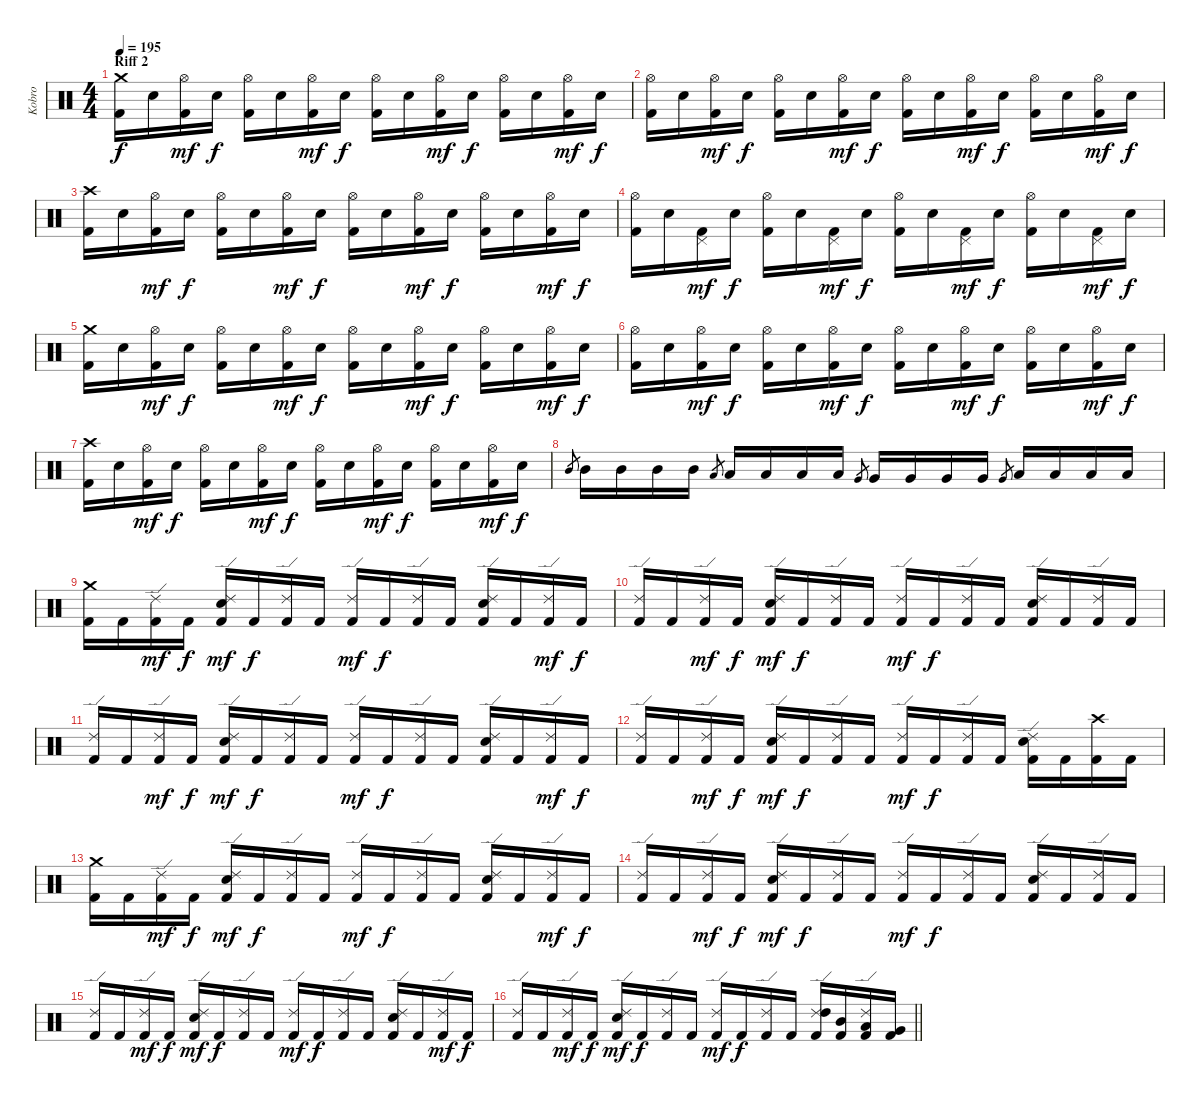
\track ("Kobro" "Kobro") {instrument percussion}
\staff {score}
\articulation defaults
\ts (4 4)
\section ("" "Riff 2")
\tempo 195
\clef neutral
\ks c
("Crash medium (hit)" "Kick (hit) 2").16{dy f} "Electric Snare (hit)".16 ("Hi-Hat (open)" "Kick (hit) 2").16{dy mf} "Electric Snare (hit)".16{dy f} ("Hi-Hat (open)" "Kick (hit) 2").16 "Electric Snare (hit)".16 ("Hi-Hat (open)" "Kick (hit) 2").16{dy mf} "Electric Snare (hit)".16{dy f} ("Hi-Hat (open)" "Kick (hit) 2").16 "Electric Snare (hit)".16 ("Hi-Hat (open)" "Kick (hit) 2").16{dy mf} "Electric Snare (hit)".16{dy f} ("Hi-Hat (open)" "Kick (hit) 2").16 "Electric Snare (hit)".16 ("Hi-Hat (open)" "Kick (hit) 2").16{dy mf} "Electric Snare (hit)".16{dy f} |
("Hi-Hat (open)" "Kick (hit) 2").16 "Electric Snare (hit)".16 ("Hi-Hat (open)" "Kick (hit) 2").16{dy mf} "Electric Snare (hit)".16{dy f} ("Hi-Hat (open)" "Kick (hit) 2").16 "Electric Snare (hit)".16 ("Hi-Hat (open)" "Kick (hit) 2").16{dy mf} "Electric Snare (hit)".16{dy f} ("Hi-Hat (open)" "Kick (hit) 2").16 "Electric Snare (hit)".16 ("Hi-Hat (open)" "Kick (hit) 2").16{dy mf} "Electric Snare (hit)".16{dy f} ("Hi-Hat (open)" "Kick (hit) 2").16 "Electric Snare (hit)".16 ("Hi-Hat (open)" "Kick (hit) 2").16{dy mf} "Electric Snare (hit)".16{dy f} |
("Crash high (hit)" "Kick (hit) 2").16 "Electric Snare (hit)".16 ("Hi-Hat (open)" "Kick (hit) 2").16{dy mf} "Electric Snare (hit)".16{dy f} ("Hi-Hat (open)" "Kick (hit) 2").16 "Electric Snare (hit)".16 ("Hi-Hat (open)" "Kick (hit) 2").16{dy mf} "Electric Snare (hit)".16{dy f} ("Hi-Hat (open)" "Kick (hit) 2").16 "Electric Snare (hit)".16 ("Hi-Hat (open)" "Kick (hit) 2").16{dy mf} "Electric Snare (hit)".16{dy f} ("Hi-Hat (open)" "Kick (hit) 2").16 "Electric Snare (hit)".16 ("Hi-Hat (open)" "Kick (hit) 2").16{dy mf} "Electric Snare (hit)".16{dy f} |
("Hi-Hat (open)" "Kick (hit) 2").16 "Electric Snare (hit)".16 ("Pedal Hi-Hat (hit)" "Kick (hit) 2").16{dy mf} "Electric Snare (hit)".16{dy f} ("Hi-Hat (open)" "Kick (hit) 2").16 "Electric Snare (hit)".16 ("Pedal Hi-Hat (hit)" "Kick (hit) 2").16{dy mf} "Electric Snare (hit)".16{dy f} ("Hi-Hat (open)" "Kick (hit) 2").16 "Electric Snare (hit)".16 ("Pedal Hi-Hat (hit)" "Kick (hit) 2").16{dy mf} "Electric Snare (hit)".16{dy f} ("Hi-Hat (open)" "Kick (hit) 2").16 "Electric Snare (hit)".16 ("Pedal Hi-Hat (hit)" "Kick (hit) 2").16{dy mf} "Electric Snare (hit)".16{dy f} |
("Crash medium (hit)" "Kick (hit) 2").16 "Electric Snare (hit)".16 ("Hi-Hat (open)" "Kick (hit) 2").16{dy mf} "Electric Snare (hit)".16{dy f} ("Hi-Hat (open)" "Kick (hit) 2").16 "Electric Snare (hit)".16 ("Hi-Hat (open)" "Kick (hit) 2").16{dy mf} "Electric Snare (hit)".16{dy f} ("Hi-Hat (open)" "Kick (hit) 2").16 "Electric Snare (hit)".16 ("Hi-Hat (open)" "Kick (hit) 2").16{dy mf} "Electric Snare (hit)".16{dy f} ("Hi-Hat (open)" "Kick (hit) 2").16 "Electric Snare (hit)".16 ("Hi-Hat (open)" "Kick (hit) 2").16{dy mf} "Electric Snare (hit)".16{dy f} |
("Hi-Hat (open)" "Kick (hit) 2").16 "Electric Snare (hit)".16 ("Hi-Hat (open)" "Kick (hit) 2").16{dy mf} "Electric Snare (hit)".16{dy f} ("Hi-Hat (open)" "Kick (hit) 2").16 "Electric Snare (hit)".16 ("Hi-Hat (open)" "Kick (hit) 2").16{dy mf} "Electric Snare (hit)".16{dy f} ("Hi-Hat (open)" "Kick (hit) 2").16 "Electric Snare (hit)".16 ("Hi-Hat (open)" "Kick (hit) 2").16{dy mf} "Electric Snare (hit)".16{dy f} ("Hi-Hat (open)" "Kick (hit) 2").16 "Electric Snare (hit)".16 ("Hi-Hat (open)" "Kick (hit) 2").16{dy mf} "Electric Snare (hit)".16{dy f} |
("Crash high (hit)" "Kick (hit) 2").16 "Electric Snare (hit)".16 ("Hi-Hat (open)" "Kick (hit) 2").16{dy mf} "Electric Snare (hit)".16{dy f} ("Hi-Hat (open)" "Kick (hit) 2").16 "Electric Snare (hit)".16 ("Hi-Hat (open)" "Kick (hit) 2").16{dy mf} "Electric Snare (hit)".16{dy f} ("Hi-Hat (open)" "Kick (hit) 2").16 "Electric Snare (hit)".16 ("Hi-Hat (open)" "Kick (hit) 2").16{dy mf} "Electric Snare (hit)".16{dy f} ("Hi-Hat (open)" "Kick (hit) 2").16 "Electric Snare (hit)".16 ("Hi-Hat (open)" "Kick (hit) 2").16{dy mf} "Electric Snare (hit)".16{dy f} |
"Mid Tom (hit)".8{gr} "Mid Tom (hit)".16 "Mid Tom (hit)".16 "Mid Tom (hit)".16 "Mid Tom (hit)".16 "Low Tom (hit)".8{gr} "Low Tom (hit)".16 "Low Tom (hit)".16 "Low Tom (hit)".16 "Low Tom (hit)".16 "Very Low Tom (hit)".8{gr} "Very Low Tom (hit)".16 "Very Low Tom (hit)".16 "Very Low Tom (hit)".16 "Very Low Tom (hit)".16 "Very Low Tom (hit)".8{gr} "Low Floor Tom (hit)".16 "Low Floor Tom (hit)".16 "Low Floor Tom (hit)".16 "Low Floor Tom (hit)".16 |
("Crash medium (hit)" "Kick (hit) 2").16 "Kick (hit) 2".16 ("Ride (edge) 2" "Kick (hit) 2").16{dy mf} "Kick (hit) 2".16{dy f} ("Ride (edge) 2" "Electric Snare (hit)" "Kick (hit) 2").16{dy mf} "Kick (hit) 2".16{dy f} ("Ride (edge) 2" "Kick (hit) 2").16 "Kick (hit) 2".16 ("Ride (edge) 2" "Kick (hit) 2").16{dy mf} "Kick (hit) 2".16{dy f} ("Ride (edge) 2" "Kick (hit) 2").16 "Kick (hit) 2".16 ("Ride (edge) 2" "Electric Snare (hit)" "Kick (hit) 2").16 "Kick (hit) 2".16 ("Ride (edge) 2" "Kick (hit) 2").16{dy mf} "Kick (hit) 2".16{dy f} |
("Ride (edge) 2" "Kick (hit) 2").16 "Kick (hit) 2".16 ("Ride (edge) 2" "Kick (hit) 2").16{dy mf} "Kick (hit) 2".16{dy f} ("Ride (edge) 2" "Electric Snare (hit)" "Kick (hit) 2").16{dy mf} "Kick (hit) 2".16{dy f} ("Ride (edge) 2" "Kick (hit) 2").16 "Kick (hit) 2".16 ("Ride (edge) 2" "Kick (hit) 2").16{dy mf} "Kick (hit) 2".16{dy f} ("Ride (edge) 2" "Kick (hit) 2").16 "Kick (hit) 2".16 ("Ride (edge) 2" "Electric Snare (hit)" "Kick (hit) 2").16 "Kick (hit) 2".16 ("Ride (edge) 2" "Kick (hit) 2").16 "Kick (hit) 2".16 |
("Ride (edge) 2" "Kick (hit) 2").16 "Kick (hit) 2".16 ("Ride (edge) 2" "Kick (hit) 2").16{dy mf} "Kick (hit) 2".16{dy f} ("Ride (edge) 2" "Electric Snare (hit)" "Kick (hit) 2").16{dy mf} "Kick (hit) 2".16{dy f} ("Ride (edge) 2" "Kick (hit) 2").16 "Kick (hit) 2".16 ("Ride (edge) 2" "Kick (hit) 2").16{dy mf} "Kick (hit) 2".16{dy f} ("Ride (edge) 2" "Kick (hit) 2").16 "Kick (hit) 2".16 ("Ride (edge) 2" "Electric Snare (hit)" "Kick (hit) 2").16 "Kick (hit) 2".16 ("Ride (edge) 2" "Kick (hit) 2").16{dy mf} "Kick (hit) 2".16{dy f} |
("Ride (edge) 2" "Kick (hit) 2").16 "Kick (hit) 2".16 ("Ride (edge) 2" "Kick (hit) 2").16{dy mf} "Kick (hit) 2".16{dy f} ("Ride (edge) 2" "Electric Snare (hit)" "Kick (hit) 2").16{dy mf} "Kick (hit) 2".16{dy f} ("Ride (edge) 2" "Kick (hit) 2").16 "Kick (hit) 2".16 ("Ride (edge) 2" "Kick (hit) 2").16{dy mf} "Kick (hit) 2".16{dy f} ("Ride (edge) 2" "Kick (hit) 2").16 "Kick (hit) 2".16 ("Ride (edge) 2" "Electric Snare (hit)" "Kick (hit) 2").16 "Kick (hit) 2".16 ("Crash high (hit)" "Kick (hit) 2").16 "Kick (hit) 2".16 |
("Crash medium (hit)" "Kick (hit) 2").16 "Kick (hit) 2".16 ("Ride (edge) 2" "Kick (hit) 2").16{dy mf} "Kick (hit) 2".16{dy f} ("Ride (edge) 2" "Electric Snare (hit)" "Kick (hit) 2").16{dy mf} "Kick (hit) 2".16{dy f} ("Ride (edge) 2" "Kick (hit) 2").16 "Kick (hit) 2".16 ("Ride (edge) 2" "Kick (hit) 2").16{dy mf} "Kick (hit) 2".16{dy f} ("Ride (edge) 2" "Kick (hit) 2").16 "Kick (hit) 2".16 ("Ride (edge) 2" "Electric Snare (hit)" "Kick (hit) 2").16 "Kick (hit) 2".16 ("Ride (edge) 2" "Kick (hit) 2").16{dy mf} "Kick (hit) 2".16{dy f} |
("Ride (edge) 2" "Kick (hit) 2").16 "Kick (hit) 2".16 ("Ride (edge) 2" "Kick (hit) 2").16{dy mf} "Kick (hit) 2".16{dy f} ("Ride (edge) 2" "Electric Snare (hit)" "Kick (hit) 2").16{dy mf} "Kick (hit) 2".16{dy f} ("Ride (edge) 2" "Kick (hit) 2").16 "Kick (hit) 2".16 ("Ride (edge) 2" "Kick (hit) 2").16{dy mf} "Kick (hit) 2".16{dy f} ("Ride (edge) 2" "Kick (hit) 2").16 "Kick (hit) 2".16 ("Ride (edge) 2" "Electric Snare (hit)" "Kick (hit) 2").16 "Kick (hit) 2".16 ("Ride (edge) 2" "Kick (hit) 2").16 "Kick (hit) 2".16 |
("Ride (edge) 2" "Kick (hit) 2").16 "Kick (hit) 2".16 ("Ride (edge) 2" "Kick (hit) 2").16{dy mf} "Kick (hit) 2".16{dy f} ("Ride (edge) 2" "Electric Snare (hit)" "Kick (hit) 2").16{dy mf} "Kick (hit) 2".16{dy f} ("Ride (edge) 2" "Kick (hit) 2").16 "Kick (hit) 2".16 ("Ride (edge) 2" "Kick (hit) 2").16{dy mf} "Kick (hit) 2".16{dy f} ("Ride (edge) 2" "Kick (hit) 2").16 "Kick (hit) 2".16 ("Ride (edge) 2" "Electric Snare (hit)" "Kick (hit) 2").16 "Kick (hit) 2".16 ("Ride (edge) 2" "Kick (hit) 2").16{dy mf} "Kick (hit) 2".16{dy f} |
\barLineRight lightlight
("Ride (edge) 2" "Kick (hit) 2").16 "Kick (hit) 2".16 ("Ride (edge) 2" "Kick (hit) 2").16{dy mf} "Kick (hit) 2".16{dy f} ("Ride (edge) 2" "Electric Snare (hit)" "Kick (hit) 2").16{dy mf} "Kick (hit) 2".16{dy f} ("Ride (edge) 2" "Kick (hit) 2").16 "Kick (hit) 2".16 ("Ride (edge) 2" "Kick (hit) 2").16{dy mf} "Kick (hit) 2".16{dy f} ("Ride (edge) 2" "Kick (hit) 2").16 "Kick (hit) 2".16 ("Ride (edge) 2" "High Tom (hit)" "Kick (hit) 2").16 ("Mid Tom (hit)" "Kick (hit) 2").16 ("Ride (edge) 2" "Low Tom (hit)" "Kick (hit) 2").16 ("Very Low Tom (hit)" "Kick (hit) 2").16
